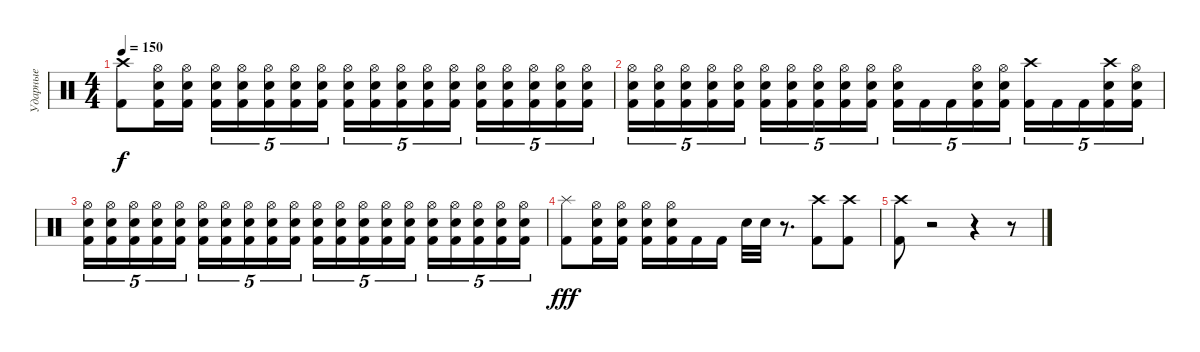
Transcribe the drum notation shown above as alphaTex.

\track ("Ударные" "Ударные") {instrument percussion}
\staff {score}
\articulation defaults
\ts (4 4)
\tempo 150
\clef neutral
\ks c
("Crash high (hit)" "Kick (hit) 2").8{dy f} ("Snare (hit) 2" "Hi-Hat (open)" "Kick (hit) 2").16 ("Snare (hit) 2" "Hi-Hat (open)" "Kick (hit) 2").16 ("Snare (hit) 2" "Hi-Hat (open)" "Kick (hit) 2").16{tu (5 4)} ("Snare (hit) 2" "Hi-Hat (open)" "Kick (hit) 2").16{tu (5 4)} ("Snare (hit) 2" "Hi-Hat (open)" "Kick (hit) 2").16{tu (5 4)} ("Snare (hit) 2" "Hi-Hat (open)" "Kick (hit) 2").16{tu (5 4)} ("Snare (hit) 2" "Hi-Hat (open)" "Kick (hit) 2").16{tu (5 4)} ("Snare (hit) 2" "Hi-Hat (open)" "Kick (hit) 2").16{tu (5 4)} ("Snare (hit) 2" "Hi-Hat (open)" "Kick (hit) 2").16{tu (5 4)} ("Snare (hit) 2" "Hi-Hat (open)" "Kick (hit) 2").16{tu (5 4)} ("Snare (hit) 2" "Hi-Hat (open)" "Kick (hit) 2").16{tu (5 4)} ("Snare (hit) 2" "Hi-Hat (open)" "Kick (hit) 2").16{tu (5 4)} ("Snare (hit) 2" "Hi-Hat (open)" "Kick (hit) 2").16{tu (5 4)} ("Snare (hit) 2" "Hi-Hat (open)" "Kick (hit) 2").16{tu (5 4)} ("Snare (hit) 2" "Hi-Hat (open)" "Kick (hit) 2").16{tu (5 4)} ("Snare (hit) 2" "Hi-Hat (open)" "Kick (hit) 2").16{tu (5 4)} ("Snare (hit) 2" "Hi-Hat (open)" "Kick (hit) 2").16{tu (5 4)} |
("Snare (hit) 2" "Hi-Hat (open)" "Kick (hit) 2").16{tu (5 4)} ("Snare (hit) 2" "Hi-Hat (open)" "Kick (hit) 2").16{tu (5 4)} ("Snare (hit) 2" "Hi-Hat (open)" "Kick (hit) 2").16{tu (5 4)} ("Snare (hit) 2" "Hi-Hat (open)" "Kick (hit) 2").16{tu (5 4)} ("Snare (hit) 2" "Hi-Hat (open)" "Kick (hit) 2").16{tu (5 4)} ("Snare (hit) 2" "Hi-Hat (open)" "Kick (hit) 2").16{tu (5 4)} ("Snare (hit) 2" "Hi-Hat (open)" "Kick (hit) 2").16{tu (5 4)} ("Snare (hit) 2" "Hi-Hat (open)" "Kick (hit) 2").16{tu (5 4)} ("Snare (hit) 2" "Hi-Hat (open)" "Kick (hit) 2").16{tu (5 4)} ("Snare (hit) 2" "Hi-Hat (open)" "Kick (hit) 2").16{tu (5 4)} ("Snare (hit) 2" "Hi-Hat (open)" "Kick (hit) 2").16{tu (5 4)} "Kick (hit) 2".16{tu (5 4)} "Kick (hit) 2".16{tu (5 4)} ("Snare (hit) 2" "Hi-Hat (open)" "Kick (hit) 2").16{tu (5 4)} ("Snare (hit) 2" "Hi-Hat (open)" "Kick (hit) 2").16{tu (5 4)} ("Crash high (hit)" "Kick (hit) 2").16{tu (5 4)} "Kick (hit) 2".16{tu (5 4)} "Kick (hit) 2".16{tu (5 4)} ("Snare (hit) 2" "Crash high (hit)" "Kick (hit) 2").16{tu (5 4)} ("Snare (hit) 2" "Hi-Hat (open)" "Kick (hit) 2").16{tu (5 4)} |
("Snare (hit) 2" "Hi-Hat (open)" "Kick (hit) 2").16{tu (5 4)} ("Snare (hit) 2" "Hi-Hat (open)" "Kick (hit) 2").16{tu (5 4)} ("Snare (hit) 2" "Hi-Hat (open)" "Kick (hit) 2").16{tu (5 4)} ("Snare (hit) 2" "Hi-Hat (open)" "Kick (hit) 2").16{tu (5 4)} ("Snare (hit) 2" "Hi-Hat (open)" "Kick (hit) 2").16{tu (5 4)} ("Snare (hit) 2" "Hi-Hat (open)" "Kick (hit) 2").16{tu (5 4)} ("Snare (hit) 2" "Hi-Hat (open)" "Kick (hit) 2").16{tu (5 4)} ("Snare (hit) 2" "Hi-Hat (open)" "Kick (hit) 2").16{tu (5 4)} ("Snare (hit) 2" "Hi-Hat (open)" "Kick (hit) 2").16{tu (5 4)} ("Snare (hit) 2" "Hi-Hat (open)" "Kick (hit) 2").16{tu (5 4)} ("Snare (hit) 2" "Hi-Hat (open)" "Kick (hit) 2").16{tu (5 4)} ("Snare (hit) 2" "Hi-Hat (open)" "Kick (hit) 2").16{tu (5 4)} ("Snare (hit) 2" "Hi-Hat (open)" "Kick (hit) 2").16{tu (5 4)} ("Snare (hit) 2" "Hi-Hat (open)" "Kick (hit) 2").16{tu (5 4)} ("Snare (hit) 2" "Hi-Hat (open)" "Kick (hit) 2").16{tu (5 4)} ("Snare (hit) 2" "Hi-Hat (open)" "Kick (hit) 2").16{tu (5 4)} ("Snare (hit) 2" "Hi-Hat (open)" "Kick (hit) 2").16{tu (5 4)} ("Snare (hit) 2" "Hi-Hat (open)" "Kick (hit) 2").16{tu (5 4)} ("Snare (hit) 2" "Hi-Hat (open)" "Kick (hit) 2").16{tu (5 4)} ("Snare (hit) 2" "Hi-Hat (open)" "Kick (hit) 2").16{tu (5 4)} |
("Splash (hit)" "Kick (hit) 2").8{dy fff} ("Hi-Hat (open)" "Snare (hit) 2" "Kick (hit) 2").16 ("Hi-Hat (open)" "Snare (hit) 2" "Kick (hit) 2").16 ("Hi-Hat (open)" "Snare (hit) 2" "Kick (hit) 2").16 ("Hi-Hat (open)" "Snare (hit) 2" "Kick (hit) 2").16 "Kick (hit) 2".16 "Kick (hit) 2".16 "Snare (hit) 2".32 "Snare (hit) 2".32 r.8{d} ("Crash high (hit)" "Kick (hit) 2").8 ("Crash high (hit)" "Kick (hit) 2").8 |
("Crash high (hit)" "Kick (hit) 2").8 r.2 r.4 r.8
